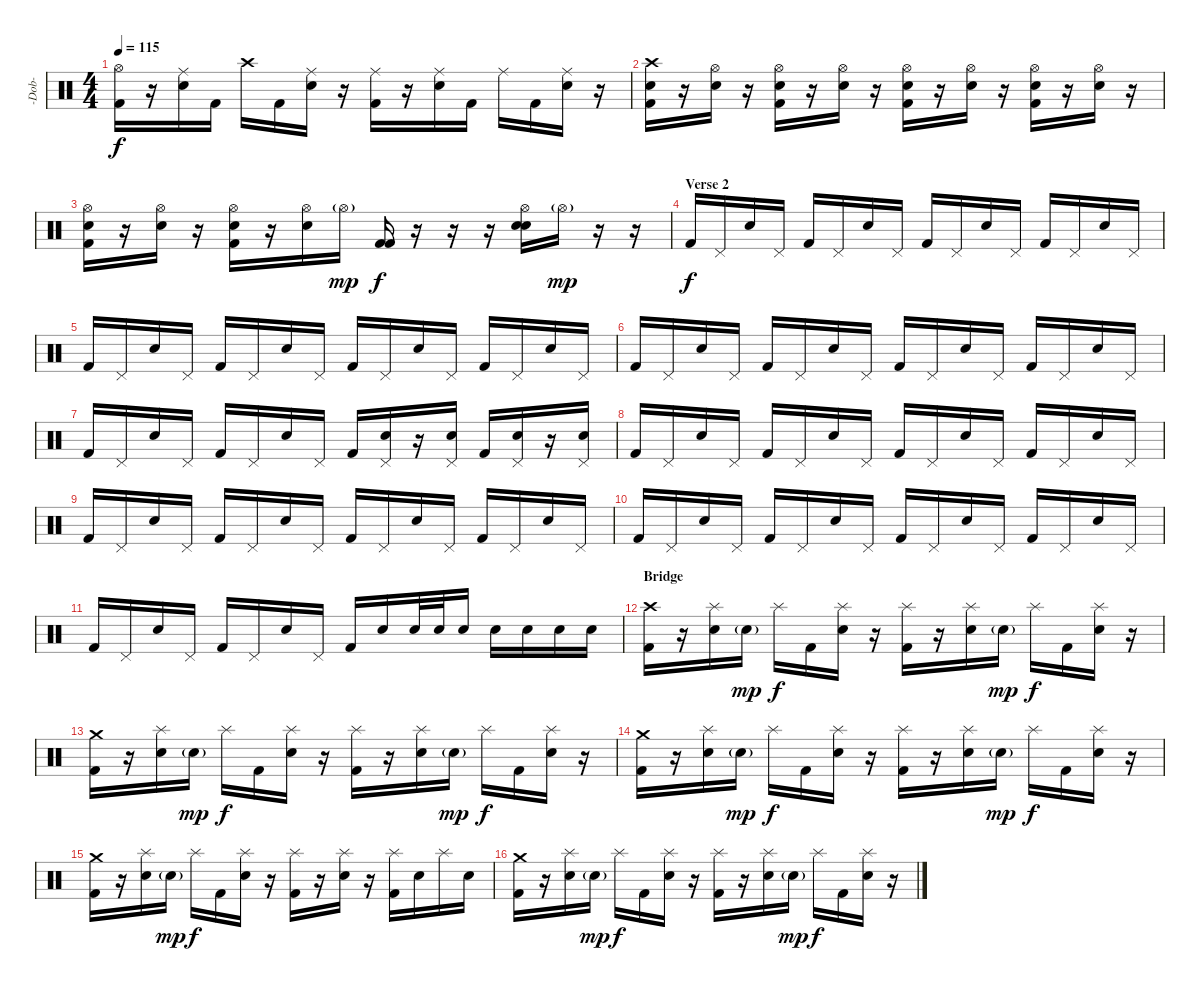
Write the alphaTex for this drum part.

\track ("-Dob-" "-Dob-") {instrument percussion}
\staff {score}
\articulation defaults
\ts (4 4)
\tempo 115
\clef neutral
\ks c
("Hi-Hat (open)" "Kick (hit) 2").16{dy f} r.16 ("Ride (middle)" "Snare (hit) 2").16 "Kick (hit) 2".16 "Crash high (hit)".16 "Kick (hit) 2".16 ("Ride (middle)" "Snare (hit) 2").16 r.16 ("Ride (middle)" "Kick (hit) 2").16 r.16 ("Ride (middle)" "Snare (hit) 2").16 "Kick (hit) 2".16 "Ride (middle)".16 "Kick (hit) 2".16 ("Ride (middle)" "Snare (hit) 2").16 r.16 |
("Crash high (hit)" "Snare (hit) 2" "Kick (hit) 2").16 r.16 ("Hi-Hat (open)" "Snare (hit) 2").16 r.16 ("Hi-Hat (open)" "Snare (hit) 2" "Kick (hit) 2").16 r.16 ("Hi-Hat (open)" "Snare (hit) 2").16 r.16 ("Hi-Hat (open)" "Snare (hit) 2" "Kick (hit) 2").16 r.16 ("Hi-Hat (open)" "Snare (hit) 2").16 r.16 ("Hi-Hat (open)" "Snare (hit) 2" "Kick (hit) 2").16 r.16 ("Hi-Hat (open)" "Snare (hit) 2").16 r.16 |
("Hi-Hat (open)" "Snare (hit) 2" "Kick (hit) 2").16 r.16 ("Hi-Hat (open)" "Snare (hit) 2").16 r.16 ("Hi-Hat (open)" "Snare (hit) 2" "Kick (hit) 2").16 r.16 ("Hi-Hat (open)" "Snare (hit) 2").16 "Hi-Hat (open)"{g}.16{dy mp} ("Kick (hit) 2" "Kick (hit) 2").16{dy f} r.16 r.16 r.16 ("Hi-Hat (open)" "Snare (hit) 2" "Snare (hit) 2").16 "Hi-Hat (open)"{g}.16{dy mp} r.16 r.16 |
\section ("" "Verse 2")
"Kick (hit) 2".16{dy f} "Pedal Hi-Hat (hit)".16 "Snare (hit) 2".16 "Pedal Hi-Hat (hit)".16 "Kick (hit) 2".16 "Pedal Hi-Hat (hit)".16 "Snare (hit) 2".16 "Pedal Hi-Hat (hit)".16 "Kick (hit) 2".16 "Pedal Hi-Hat (hit)".16 "Snare (hit) 2".16 "Pedal Hi-Hat (hit)".16 "Kick (hit) 2".16 "Pedal Hi-Hat (hit)".16 "Snare (hit) 2".16 "Pedal Hi-Hat (hit)".16 |
"Kick (hit) 2".16 "Pedal Hi-Hat (hit)".16 "Snare (hit) 2".16 "Pedal Hi-Hat (hit)".16 "Kick (hit) 2".16 "Pedal Hi-Hat (hit)".16 "Snare (hit) 2".16 "Pedal Hi-Hat (hit)".16 "Kick (hit) 2".16 "Pedal Hi-Hat (hit)".16 "Snare (hit) 2".16 "Pedal Hi-Hat (hit)".16 "Kick (hit) 2".16 "Pedal Hi-Hat (hit)".16 "Snare (hit) 2".16 "Pedal Hi-Hat (hit)".16 |
"Kick (hit) 2".16 "Pedal Hi-Hat (hit)".16 "Snare (hit) 2".16 "Pedal Hi-Hat (hit)".16 "Kick (hit) 2".16 "Pedal Hi-Hat (hit)".16 "Snare (hit) 2".16 "Pedal Hi-Hat (hit)".16 "Kick (hit) 2".16 "Pedal Hi-Hat (hit)".16 "Snare (hit) 2".16 "Pedal Hi-Hat (hit)".16 "Kick (hit) 2".16 "Pedal Hi-Hat (hit)".16 "Snare (hit) 2".16 "Pedal Hi-Hat (hit)".16 |
"Kick (hit) 2".16 "Pedal Hi-Hat (hit)".16 "Snare (hit) 2".16 "Pedal Hi-Hat (hit)".16 "Kick (hit) 2".16 "Pedal Hi-Hat (hit)".16 "Snare (hit) 2".16 "Pedal Hi-Hat (hit)".16 "Kick (hit) 2".16 ("Pedal Hi-Hat (hit)" "Snare (hit) 2").16 r.16 ("Pedal Hi-Hat (hit)" "Snare (hit) 2").16 "Kick (hit) 2".16 ("Pedal Hi-Hat (hit)" "Snare (hit) 2").16 r.16 ("Pedal Hi-Hat (hit)" "Snare (hit) 2").16 |
"Kick (hit) 2".16 "Pedal Hi-Hat (hit)".16 "Snare (hit) 2".16 "Pedal Hi-Hat (hit)".16 "Kick (hit) 2".16 "Pedal Hi-Hat (hit)".16 "Snare (hit) 2".16 "Pedal Hi-Hat (hit)".16 "Kick (hit) 2".16 "Pedal Hi-Hat (hit)".16 "Snare (hit) 2".16 "Pedal Hi-Hat (hit)".16 "Kick (hit) 2".16 "Pedal Hi-Hat (hit)".16 "Snare (hit) 2".16 "Pedal Hi-Hat (hit)".16 |
"Kick (hit) 2".16 "Pedal Hi-Hat (hit)".16 "Snare (hit) 2".16 "Pedal Hi-Hat (hit)".16 "Kick (hit) 2".16 "Pedal Hi-Hat (hit)".16 "Snare (hit) 2".16 "Pedal Hi-Hat (hit)".16 "Kick (hit) 2".16 "Pedal Hi-Hat (hit)".16 "Snare (hit) 2".16 "Pedal Hi-Hat (hit)".16 "Kick (hit) 2".16 "Pedal Hi-Hat (hit)".16 "Snare (hit) 2".16 "Pedal Hi-Hat (hit)".16 |
"Kick (hit) 2".16 "Pedal Hi-Hat (hit)".16 "Snare (hit) 2".16 "Pedal Hi-Hat (hit)".16 "Kick (hit) 2".16 "Pedal Hi-Hat (hit)".16 "Snare (hit) 2".16 "Pedal Hi-Hat (hit)".16 "Kick (hit) 2".16 "Pedal Hi-Hat (hit)".16 "Snare (hit) 2".16 "Pedal Hi-Hat (hit)".16 "Kick (hit) 2".16 "Pedal Hi-Hat (hit)".16 "Snare (hit) 2".16 "Pedal Hi-Hat (hit)".16 |
"Kick (hit) 2".16 "Pedal Hi-Hat (hit)".16 "Snare (hit) 2".16 "Pedal Hi-Hat (hit)".16 "Kick (hit) 2".16 "Pedal Hi-Hat (hit)".16 "Snare (hit) 2".16 "Pedal Hi-Hat (hit)".16 "Kick (hit) 2".16 "Snare (hit) 2".16 "Snare (hit) 2".32 "Snare (hit) 2".32 "Snare (hit) 2".16 "Snare (hit) 2".16 "Snare (hit) 2".16 "Snare (hit) 2".16 "Snare (hit) 2".16 |
\section ("" "Bridge")
("Crash high (hit)" "Kick (hit) 2").16 r.16 ("Splash (hit)" "Snare (hit) 2").16 "Snare (hit) 2"{g}.16{dy mp} "Splash (hit)".16{dy f} "Kick (hit) 2".16 ("Splash (hit)" "Snare (hit) 2").16 r.16 ("Splash (hit)" "Kick (hit) 2").16 r.16 ("Splash (hit)" "Snare (hit) 2").16 "Snare (hit) 2"{g}.16{dy mp} "Splash (hit)".16{dy f} "Kick (hit) 2".16 ("Splash (hit)" "Snare (hit) 2").16 r.16 |
("Crash medium (hit)" "Kick (hit) 2").16 r.16 ("Splash (hit)" "Snare (hit) 2").16 "Snare (hit) 2"{g}.16{dy mp} "Splash (hit)".16{dy f} "Kick (hit) 2".16 ("Splash (hit)" "Snare (hit) 2").16 r.16 ("Splash (hit)" "Kick (hit) 2").16 r.16 ("Splash (hit)" "Snare (hit) 2").16 "Snare (hit) 2"{g}.16{dy mp} "Splash (hit)".16{dy f} "Kick (hit) 2".16 ("Splash (hit)" "Snare (hit) 2").16 r.16 |
("Crash medium (hit)" "Kick (hit) 2").16 r.16 ("Splash (hit)" "Snare (hit) 2").16 "Snare (hit) 2"{g}.16{dy mp} "Splash (hit)".16{dy f} "Kick (hit) 2".16 ("Splash (hit)" "Snare (hit) 2").16 r.16 ("Splash (hit)" "Kick (hit) 2").16 r.16 ("Splash (hit)" "Snare (hit) 2").16 "Snare (hit) 2"{g}.16{dy mp} "Splash (hit)".16{dy f} "Kick (hit) 2".16 ("Splash (hit)" "Snare (hit) 2").16 r.16 |
("Crash medium (hit)" "Kick (hit) 2").16 r.16 ("Splash (hit)" "Snare (hit) 2").16 "Snare (hit) 2"{g}.16{dy mp} "Splash (hit)".16{dy f} "Kick (hit) 2".16 ("Splash (hit)" "Snare (hit) 2").16 r.16 ("Splash (hit)" "Kick (hit) 2").16 r.16 ("Splash (hit)" "Snare (hit) 2").16 r.16 ("Splash (hit)" "Kick (hit) 2").16 "Snare (hit) 2".16 "Splash (hit)".16 "Snare (hit) 2".16 |
("Crash medium (hit)" "Kick (hit) 2").16 r.16 ("Splash (hit)" "Snare (hit) 2").16 "Snare (hit) 2"{g}.16{dy mp} "Splash (hit)".16{dy f} "Kick (hit) 2".16 ("Splash (hit)" "Snare (hit) 2").16 r.16 ("Splash (hit)" "Kick (hit) 2").16 r.16 ("Splash (hit)" "Snare (hit) 2").16 "Snare (hit) 2"{g}.16{dy mp} "Splash (hit)".16{dy f} "Kick (hit) 2".16 ("Splash (hit)" "Snare (hit) 2").16 r.16
